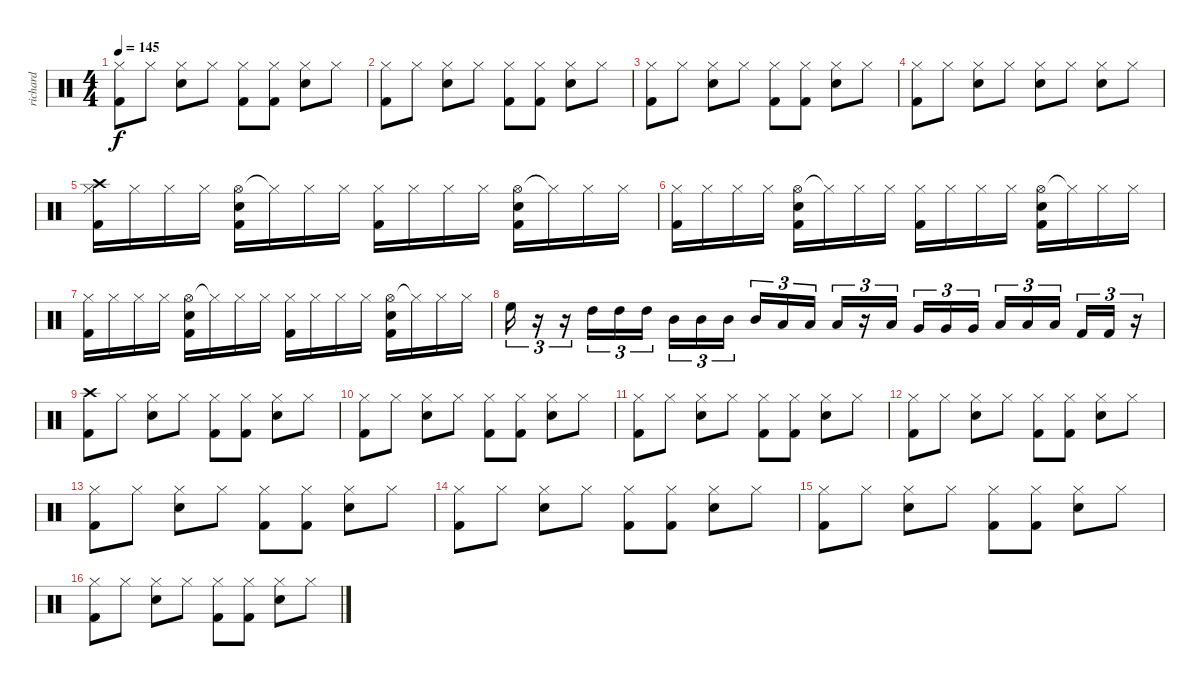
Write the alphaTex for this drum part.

\track ("richard" "richard") {instrument percussion}
\staff {score}
\articulation defaults
\ts (4 4)
\tempo 145
\clef neutral
\ks c
("Kick (hit) 2" "Hi-Hat (closed)").8{dy f} "Hi-Hat (closed)".8 ("Hi-Hat (closed)" "Snare (hit) 2").8 "Hi-Hat (closed)".8 ("Hi-Hat (closed)" "Kick (hit) 2").8 ("Hi-Hat (closed)" "Kick (hit) 2").8 ("Hi-Hat (closed)" "Snare (hit) 2").8 "Hi-Hat (closed)".8 |
("Kick (hit) 2" "Hi-Hat (closed)").8 "Hi-Hat (closed)".8 ("Hi-Hat (closed)" "Snare (hit) 2").8 "Hi-Hat (closed)".8 ("Hi-Hat (closed)" "Kick (hit) 2").8 ("Hi-Hat (closed)" "Kick (hit) 2").8 ("Hi-Hat (closed)" "Snare (hit) 2").8 "Hi-Hat (closed)".8 |
("Kick (hit) 2" "Hi-Hat (closed)").8 "Hi-Hat (closed)".8 ("Hi-Hat (closed)" "Snare (hit) 2").8 "Hi-Hat (closed)".8 ("Hi-Hat (closed)" "Kick (hit) 2").8 ("Hi-Hat (closed)" "Kick (hit) 2").8 ("Hi-Hat (closed)" "Snare (hit) 2").8 "Hi-Hat (closed)".8 |
("Kick (hit) 2" "Hi-Hat (closed)").8 "Hi-Hat (closed)".8 ("Hi-Hat (closed)" "Snare (hit) 2").8 "Hi-Hat (closed)".8 ("Hi-Hat (closed)" "Snare (hit) 2").8 "Hi-Hat (closed)".8 ("Hi-Hat (closed)" "Snare (hit) 2").8 "Hi-Hat (closed)".8 |
("Hi-Hat (closed)" "Kick (hit) 2" "Crash high (hit)").16 "Hi-Hat (closed)".16 "Hi-Hat (closed)".16 "Hi-Hat (closed)".16 ("Hi-Hat (open)" "Kick (hit) 2" "Snare (hit) 2").16 "Hi-Hat (closed)"{t}.16 "Hi-Hat (closed)".16 "Hi-Hat (closed)".16 ("Hi-Hat (closed)" "Kick (hit) 2").16 "Hi-Hat (closed)".16 "Hi-Hat (closed)".16 "Hi-Hat (closed)".16 ("Hi-Hat (open)" "Kick (hit) 2" "Snare (hit) 2").16 "Hi-Hat (closed)"{t}.16 "Hi-Hat (closed)".16 "Hi-Hat (closed)".16 |
("Hi-Hat (closed)" "Kick (hit) 2").16 "Hi-Hat (closed)".16 "Hi-Hat (closed)".16 "Hi-Hat (closed)".16 ("Hi-Hat (open)" "Kick (hit) 2" "Snare (hit) 2").16 "Hi-Hat (closed)"{t}.16 "Hi-Hat (closed)".16 "Hi-Hat (closed)".16 ("Hi-Hat (closed)" "Kick (hit) 2").16 "Hi-Hat (closed)".16 "Hi-Hat (closed)".16 "Hi-Hat (closed)".16 ("Hi-Hat (open)" "Kick (hit) 2" "Snare (hit) 2").16 "Hi-Hat (closed)"{t}.16 "Hi-Hat (closed)".16 "Hi-Hat (closed)".16 |
("Hi-Hat (closed)" "Kick (hit) 2").16 "Hi-Hat (closed)".16 "Hi-Hat (closed)".16 "Hi-Hat (closed)".16 ("Hi-Hat (open)" "Kick (hit) 2" "Snare (hit) 2").16 "Hi-Hat (closed)"{t}.16 "Hi-Hat (closed)".16 "Hi-Hat (closed)".16 ("Hi-Hat (closed)" "Kick (hit) 2").16 "Hi-Hat (closed)".16 "Hi-Hat (closed)".16 "Hi-Hat (closed)".16 ("Hi-Hat (open)" "Kick (hit) 2" "Snare (hit) 2").16 "Hi-Hat (closed)"{t}.16 "Hi-Hat (closed)".16 "Hi-Hat (closed)".16 |
"High Floor Tom (hit)".16{tu (3 2)} r.16{tu (3 2)} r.16{tu (3 2)} "High Tom (hit)".16{tu (3 2)} "High Tom (hit)".16{tu (3 2)} "High Tom (hit)".16{tu (3 2)} "Mid Tom (hit)".16{tu (3 2)} "Mid Tom (hit)".16{tu (3 2)} "Mid Tom (hit)".16{tu (3 2)} "Mid Tom (hit)".16{tu (3 2)} "Low Tom (hit)".16{tu (3 2)} "Low Tom (hit)".16{tu (3 2)} "Low Tom (hit)".16{tu (3 2)} r.16{tu (3 2)} "Low Tom (hit)".16{tu (3 2)} "Very Low Tom (hit)".16{tu (3 2)} "Very Low Tom (hit)".16{tu (3 2)} "Very Low Tom (hit)".16{tu (3 2)} "Low Floor Tom (hit)".16{tu (3 2)} "Low Floor Tom (hit)".16{tu (3 2)} "Low Floor Tom (hit)".16{tu (3 2)} "Kick (hit) 2".16{tu (3 2)} "Kick (hit) 2".16{tu (3 2)} r.16{tu (3 2)} |
("Kick (hit) 2" "Crash high (hit)").8 "Hi-Hat (closed)".8 ("Hi-Hat (closed)" "Snare (hit) 2").8 "Hi-Hat (closed)".8 ("Hi-Hat (closed)" "Kick (hit) 2").8 ("Hi-Hat (closed)" "Kick (hit) 2").8 ("Hi-Hat (closed)" "Snare (hit) 2").8 "Hi-Hat (closed)".8 |
("Kick (hit) 2" "Hi-Hat (closed)").8 "Hi-Hat (closed)".8 ("Hi-Hat (closed)" "Snare (hit) 2").8 "Hi-Hat (closed)".8 ("Hi-Hat (closed)" "Kick (hit) 2").8 ("Hi-Hat (closed)" "Kick (hit) 2").8 ("Hi-Hat (closed)" "Snare (hit) 2").8 "Hi-Hat (closed)".8 |
("Kick (hit) 2" "Hi-Hat (closed)").8 "Hi-Hat (closed)".8 ("Hi-Hat (closed)" "Snare (hit) 2").8 "Hi-Hat (closed)".8 ("Hi-Hat (closed)" "Kick (hit) 2").8 ("Hi-Hat (closed)" "Kick (hit) 2").8 ("Hi-Hat (closed)" "Snare (hit) 2").8 "Hi-Hat (closed)".8 |
("Kick (hit) 2" "Hi-Hat (closed)").8 "Hi-Hat (closed)".8 ("Hi-Hat (closed)" "Snare (hit) 2").8 "Hi-Hat (closed)".8 ("Hi-Hat (closed)" "Kick (hit) 2").8 ("Hi-Hat (closed)" "Kick (hit) 2").8 ("Hi-Hat (closed)" "Snare (hit) 2").8 "Hi-Hat (closed)".8 |
("Kick (hit) 2" "Hi-Hat (closed)").8 "Hi-Hat (closed)".8 ("Hi-Hat (closed)" "Snare (hit) 2").8 "Hi-Hat (closed)".8 ("Hi-Hat (closed)" "Kick (hit) 2").8 ("Hi-Hat (closed)" "Kick (hit) 2").8 ("Hi-Hat (closed)" "Snare (hit) 2").8 "Hi-Hat (closed)".8 |
("Kick (hit) 2" "Hi-Hat (closed)").8 "Hi-Hat (closed)".8 ("Hi-Hat (closed)" "Snare (hit) 2").8 "Hi-Hat (closed)".8 ("Hi-Hat (closed)" "Kick (hit) 2").8 ("Hi-Hat (closed)" "Kick (hit) 2").8 ("Hi-Hat (closed)" "Snare (hit) 2").8 "Hi-Hat (closed)".8 |
("Kick (hit) 2" "Hi-Hat (closed)").8 "Hi-Hat (closed)".8 ("Hi-Hat (closed)" "Snare (hit) 2").8 "Hi-Hat (closed)".8 ("Hi-Hat (closed)" "Kick (hit) 2").8 ("Hi-Hat (closed)" "Kick (hit) 2").8 ("Hi-Hat (closed)" "Snare (hit) 2").8 "Hi-Hat (closed)".8 |
("Kick (hit) 2" "Hi-Hat (closed)").8 "Hi-Hat (closed)".8 ("Hi-Hat (closed)" "Snare (hit) 2").8 "Hi-Hat (closed)".8 ("Hi-Hat (closed)" "Kick (hit) 2").8 ("Hi-Hat (closed)" "Kick (hit) 2").8 ("Hi-Hat (closed)" "Snare (hit) 2").8 "Hi-Hat (closed)".8
